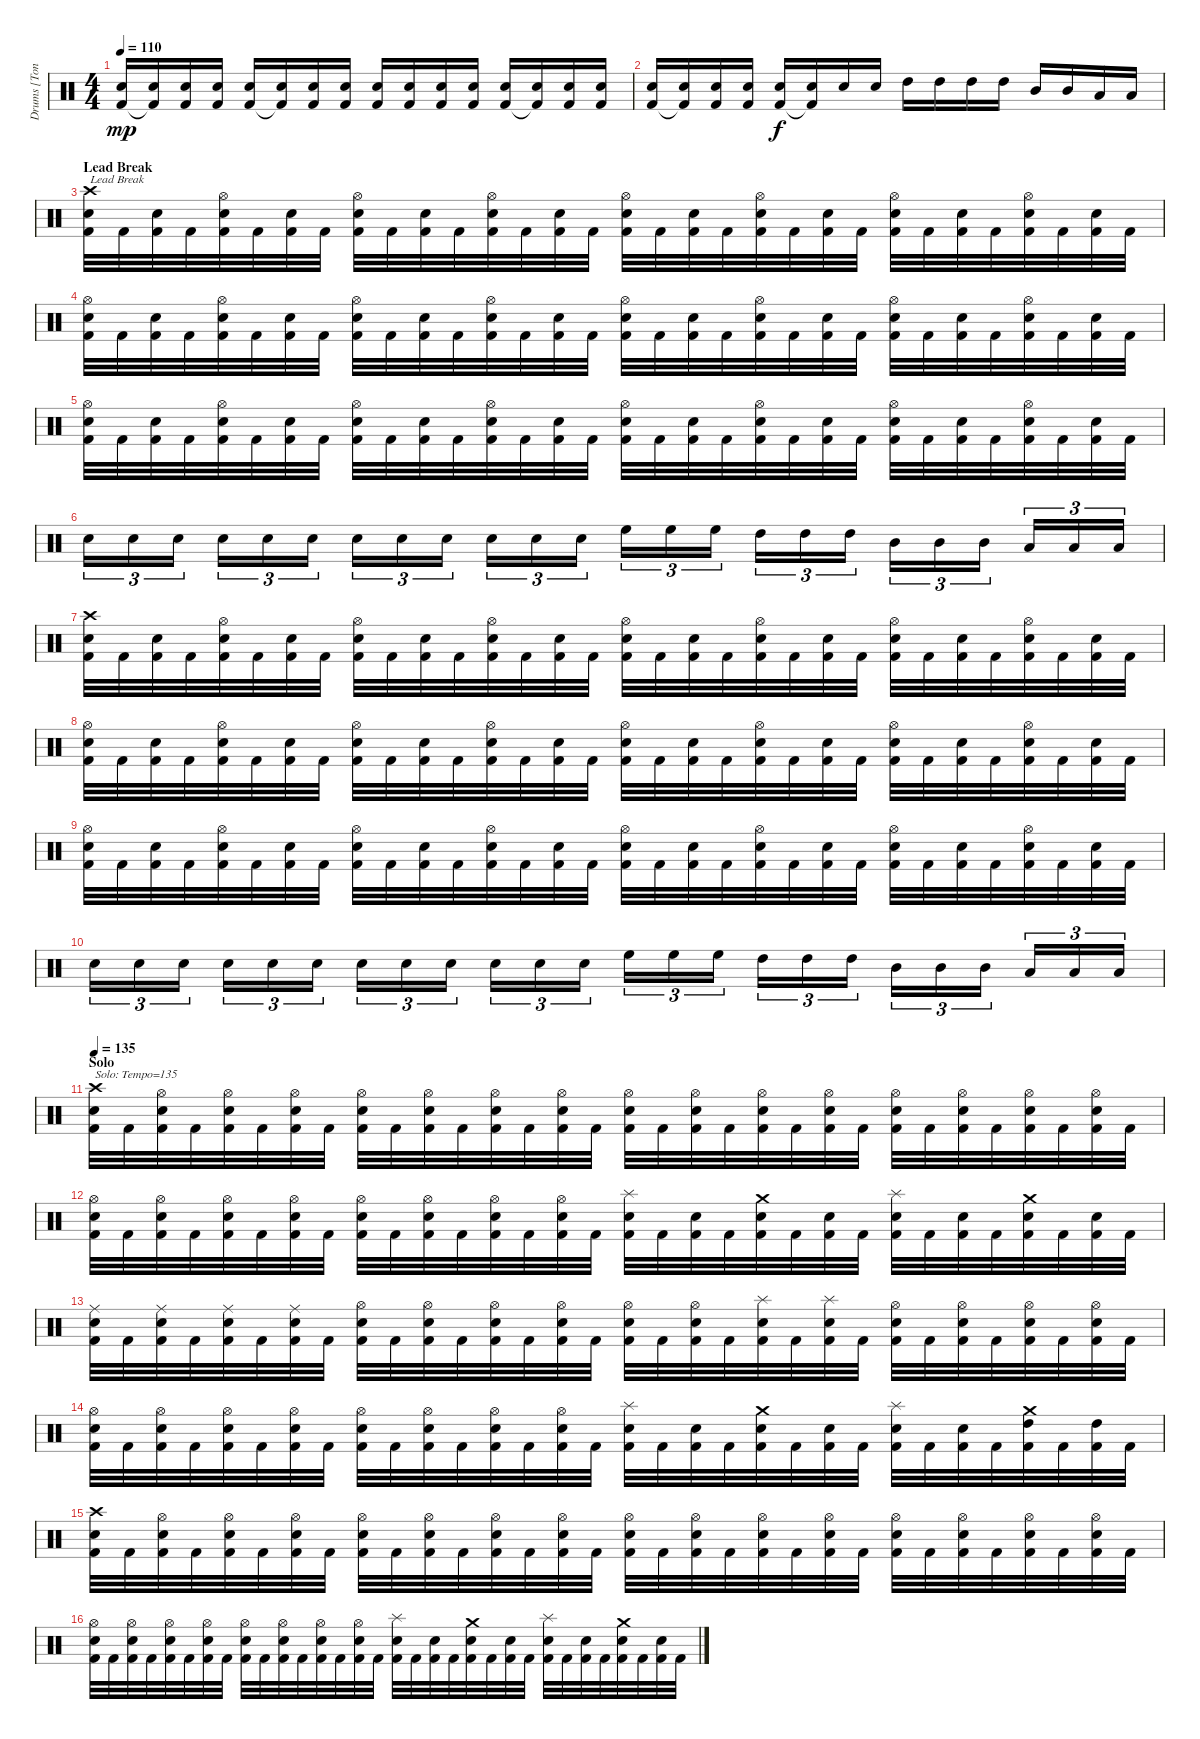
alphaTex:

\track ("Drums [Tony Laureano]" "Drums [Ton") {instrument percussion}
\staff {score}
\articulation defaults
\ts (4 4)
\tempo 110
\clef neutral
\ks c
("Electric Snare (hit)" "Kick (hit) 2").16{dy mp} ("Electric Snare (hit)" "Kick (hit) 2"{t}).16 ("Electric Snare (hit)" "Kick (hit) 2").16 ("Electric Snare (hit)" "Kick (hit) 2").16 ("Electric Snare (hit)" "Kick (hit) 2").16 ("Electric Snare (hit)" "Kick (hit) 2"{t}).16 ("Electric Snare (hit)" "Kick (hit) 2").16 ("Electric Snare (hit)" "Kick (hit) 2").16 ("Electric Snare (hit)" "Kick (hit) 2").16 ("Electric Snare (hit)" "Kick (hit) 2").16 ("Electric Snare (hit)" "Kick (hit) 2").16 ("Electric Snare (hit)" "Kick (hit) 2").16 ("Electric Snare (hit)" "Kick (hit) 2").16 ("Electric Snare (hit)" "Kick (hit) 2"{t}).16 ("Electric Snare (hit)" "Kick (hit) 2").16 ("Electric Snare (hit)" "Kick (hit) 2").16 |
("Electric Snare (hit)" "Kick (hit) 2").16 ("Electric Snare (hit)" "Kick (hit) 2"{t}).16 ("Electric Snare (hit)" "Kick (hit) 2").16 ("Electric Snare (hit)" "Kick (hit) 2").16 ("Electric Snare (hit)" "Kick (hit) 2").16{dy f} ("Electric Snare (hit)" "Kick (hit) 2"{t}).16 "Electric Snare (hit)".16 "Electric Snare (hit)".16 "High Tom (hit)".16 "High Tom (hit)".16 "High Tom (hit)".16 "High Tom (hit)".16 "Mid Tom (hit)".16 "Mid Tom (hit)".16 "Low Tom (hit)".16 "Low Tom (hit)".16 |
\section ("" "Lead Break")
("Crash high (hit)" "Electric Snare (hit)" "Kick (hit) 2").32{txt "Lead Break"} "Kick (hit) 2".32 ("Electric Snare (hit)" "Kick (hit) 2").32 "Kick (hit) 2".32 ("Hi-Hat (open)" "Electric Snare (hit)" "Kick (hit) 2").32 "Kick (hit) 2".32 ("Electric Snare (hit)" "Kick (hit) 2").32 "Kick (hit) 2".32 ("Hi-Hat (open)" "Electric Snare (hit)" "Kick (hit) 2").32 "Kick (hit) 2".32 ("Electric Snare (hit)" "Kick (hit) 2").32 "Kick (hit) 2".32 ("Hi-Hat (open)" "Electric Snare (hit)" "Kick (hit) 2").32 "Kick (hit) 2".32 ("Electric Snare (hit)" "Kick (hit) 2").32 "Kick (hit) 2".32 ("Hi-Hat (open)" "Electric Snare (hit)" "Kick (hit) 2").32 "Kick (hit) 2".32 ("Electric Snare (hit)" "Kick (hit) 2").32 "Kick (hit) 2".32 ("Hi-Hat (open)" "Electric Snare (hit)" "Kick (hit) 2").32 "Kick (hit) 2".32 ("Electric Snare (hit)" "Kick (hit) 2").32 "Kick (hit) 2".32 ("Hi-Hat (open)" "Electric Snare (hit)" "Kick (hit) 2").32 "Kick (hit) 2".32 ("Electric Snare (hit)" "Kick (hit) 2").32 "Kick (hit) 2".32 ("Hi-Hat (open)" "Electric Snare (hit)" "Kick (hit) 2").32 "Kick (hit) 2".32 ("Electric Snare (hit)" "Kick (hit) 2").32 "Kick (hit) 2".32 |
("Hi-Hat (open)" "Electric Snare (hit)" "Kick (hit) 2").32 "Kick (hit) 2".32 ("Electric Snare (hit)" "Kick (hit) 2").32 "Kick (hit) 2".32 ("Hi-Hat (open)" "Electric Snare (hit)" "Kick (hit) 2").32 "Kick (hit) 2".32 ("Electric Snare (hit)" "Kick (hit) 2").32 "Kick (hit) 2".32 ("Hi-Hat (open)" "Electric Snare (hit)" "Kick (hit) 2").32 "Kick (hit) 2".32 ("Electric Snare (hit)" "Kick (hit) 2").32 "Kick (hit) 2".32 ("Hi-Hat (open)" "Electric Snare (hit)" "Kick (hit) 2").32 "Kick (hit) 2".32 ("Electric Snare (hit)" "Kick (hit) 2").32 "Kick (hit) 2".32 ("Hi-Hat (open)" "Electric Snare (hit)" "Kick (hit) 2").32 "Kick (hit) 2".32 ("Electric Snare (hit)" "Kick (hit) 2").32 "Kick (hit) 2".32 ("Hi-Hat (open)" "Electric Snare (hit)" "Kick (hit) 2").32 "Kick (hit) 2".32 ("Electric Snare (hit)" "Kick (hit) 2").32 "Kick (hit) 2".32 ("Hi-Hat (open)" "Electric Snare (hit)" "Kick (hit) 2").32 "Kick (hit) 2".32 ("Electric Snare (hit)" "Kick (hit) 2").32 "Kick (hit) 2".32 ("Hi-Hat (open)" "Electric Snare (hit)" "Kick (hit) 2").32 "Kick (hit) 2".32 ("Electric Snare (hit)" "Kick (hit) 2").32 "Kick (hit) 2".32 |
("Hi-Hat (open)" "Electric Snare (hit)" "Kick (hit) 2").32 "Kick (hit) 2".32 ("Electric Snare (hit)" "Kick (hit) 2").32 "Kick (hit) 2".32 ("Hi-Hat (open)" "Electric Snare (hit)" "Kick (hit) 2").32 "Kick (hit) 2".32 ("Electric Snare (hit)" "Kick (hit) 2").32 "Kick (hit) 2".32 ("Hi-Hat (open)" "Electric Snare (hit)" "Kick (hit) 2").32 "Kick (hit) 2".32 ("Electric Snare (hit)" "Kick (hit) 2").32 "Kick (hit) 2".32 ("Hi-Hat (open)" "Electric Snare (hit)" "Kick (hit) 2").32 "Kick (hit) 2".32 ("Electric Snare (hit)" "Kick (hit) 2").32 "Kick (hit) 2".32 ("Hi-Hat (open)" "Electric Snare (hit)" "Kick (hit) 2").32 "Kick (hit) 2".32 ("Electric Snare (hit)" "Kick (hit) 2").32 "Kick (hit) 2".32 ("Hi-Hat (open)" "Electric Snare (hit)" "Kick (hit) 2").32 "Kick (hit) 2".32 ("Electric Snare (hit)" "Kick (hit) 2").32 "Kick (hit) 2".32 ("Hi-Hat (open)" "Electric Snare (hit)" "Kick (hit) 2").32 "Kick (hit) 2".32 ("Electric Snare (hit)" "Kick (hit) 2").32 "Kick (hit) 2".32 ("Hi-Hat (open)" "Electric Snare (hit)" "Kick (hit) 2").32 "Kick (hit) 2".32 ("Electric Snare (hit)" "Kick (hit) 2").32 "Kick (hit) 2".32 |
"Electric Snare (hit)".16{tu (3 2)} "Electric Snare (hit)".16{tu (3 2)} "Electric Snare (hit)".16{tu (3 2)} "Electric Snare (hit)".16{tu (3 2)} "Electric Snare (hit)".16{tu (3 2)} "Electric Snare (hit)".16{tu (3 2)} "Electric Snare (hit)".16{tu (3 2)} "Electric Snare (hit)".16{tu (3 2)} "Electric Snare (hit)".16{tu (3 2)} "Electric Snare (hit)".16{tu (3 2)} "Electric Snare (hit)".16{tu (3 2)} "Electric Snare (hit)".16{tu (3 2)} "High Floor Tom (hit)".16{tu (3 2)} "High Floor Tom (hit)".16{tu (3 2)} "High Floor Tom (hit)".16{tu (3 2)} "High Tom (hit)".16{tu (3 2)} "High Tom (hit)".16{tu (3 2)} "High Tom (hit)".16{tu (3 2)} "Mid Tom (hit)".16{tu (3 2)} "Mid Tom (hit)".16{tu (3 2)} "Mid Tom (hit)".16{tu (3 2)} "Low Tom (hit)".16{tu (3 2)} "Low Tom (hit)".16{tu (3 2)} "Low Tom (hit)".16{tu (3 2)} |
("Crash high (hit)" "Electric Snare (hit)" "Kick (hit) 2").32 "Kick (hit) 2".32 ("Electric Snare (hit)" "Kick (hit) 2").32 "Kick (hit) 2".32 ("Hi-Hat (open)" "Electric Snare (hit)" "Kick (hit) 2").32 "Kick (hit) 2".32 ("Electric Snare (hit)" "Kick (hit) 2").32 "Kick (hit) 2".32 ("Hi-Hat (open)" "Electric Snare (hit)" "Kick (hit) 2").32 "Kick (hit) 2".32 ("Electric Snare (hit)" "Kick (hit) 2").32 "Kick (hit) 2".32 ("Hi-Hat (open)" "Electric Snare (hit)" "Kick (hit) 2").32 "Kick (hit) 2".32 ("Electric Snare (hit)" "Kick (hit) 2").32 "Kick (hit) 2".32 ("Hi-Hat (open)" "Electric Snare (hit)" "Kick (hit) 2").32 "Kick (hit) 2".32 ("Electric Snare (hit)" "Kick (hit) 2").32 "Kick (hit) 2".32 ("Hi-Hat (open)" "Electric Snare (hit)" "Kick (hit) 2").32 "Kick (hit) 2".32 ("Electric Snare (hit)" "Kick (hit) 2").32 "Kick (hit) 2".32 ("Hi-Hat (open)" "Electric Snare (hit)" "Kick (hit) 2").32 "Kick (hit) 2".32 ("Electric Snare (hit)" "Kick (hit) 2").32 "Kick (hit) 2".32 ("Hi-Hat (open)" "Electric Snare (hit)" "Kick (hit) 2").32 "Kick (hit) 2".32 ("Electric Snare (hit)" "Kick (hit) 2").32 "Kick (hit) 2".32 |
("Hi-Hat (open)" "Electric Snare (hit)" "Kick (hit) 2").32 "Kick (hit) 2".32 ("Electric Snare (hit)" "Kick (hit) 2").32 "Kick (hit) 2".32 ("Hi-Hat (open)" "Electric Snare (hit)" "Kick (hit) 2").32 "Kick (hit) 2".32 ("Electric Snare (hit)" "Kick (hit) 2").32 "Kick (hit) 2".32 ("Hi-Hat (open)" "Electric Snare (hit)" "Kick (hit) 2").32 "Kick (hit) 2".32 ("Electric Snare (hit)" "Kick (hit) 2").32 "Kick (hit) 2".32 ("Hi-Hat (open)" "Electric Snare (hit)" "Kick (hit) 2").32 "Kick (hit) 2".32 ("Electric Snare (hit)" "Kick (hit) 2").32 "Kick (hit) 2".32 ("Hi-Hat (open)" "Electric Snare (hit)" "Kick (hit) 2").32 "Kick (hit) 2".32 ("Electric Snare (hit)" "Kick (hit) 2").32 "Kick (hit) 2".32 ("Hi-Hat (open)" "Electric Snare (hit)" "Kick (hit) 2").32 "Kick (hit) 2".32 ("Electric Snare (hit)" "Kick (hit) 2").32 "Kick (hit) 2".32 ("Hi-Hat (open)" "Electric Snare (hit)" "Kick (hit) 2").32 "Kick (hit) 2".32 ("Electric Snare (hit)" "Kick (hit) 2").32 "Kick (hit) 2".32 ("Hi-Hat (open)" "Electric Snare (hit)" "Kick (hit) 2").32 "Kick (hit) 2".32 ("Electric Snare (hit)" "Kick (hit) 2").32 "Kick (hit) 2".32 |
("Hi-Hat (open)" "Electric Snare (hit)" "Kick (hit) 2").32 "Kick (hit) 2".32 ("Electric Snare (hit)" "Kick (hit) 2").32 "Kick (hit) 2".32 ("Hi-Hat (open)" "Electric Snare (hit)" "Kick (hit) 2").32 "Kick (hit) 2".32 ("Electric Snare (hit)" "Kick (hit) 2").32 "Kick (hit) 2".32 ("Hi-Hat (open)" "Electric Snare (hit)" "Kick (hit) 2").32 "Kick (hit) 2".32 ("Electric Snare (hit)" "Kick (hit) 2").32 "Kick (hit) 2".32 ("Hi-Hat (open)" "Electric Snare (hit)" "Kick (hit) 2").32 "Kick (hit) 2".32 ("Electric Snare (hit)" "Kick (hit) 2").32 "Kick (hit) 2".32 ("Hi-Hat (open)" "Electric Snare (hit)" "Kick (hit) 2").32 "Kick (hit) 2".32 ("Electric Snare (hit)" "Kick (hit) 2").32 "Kick (hit) 2".32 ("Hi-Hat (open)" "Electric Snare (hit)" "Kick (hit) 2").32 "Kick (hit) 2".32 ("Electric Snare (hit)" "Kick (hit) 2").32 "Kick (hit) 2".32 ("Hi-Hat (open)" "Electric Snare (hit)" "Kick (hit) 2").32 "Kick (hit) 2".32 ("Electric Snare (hit)" "Kick (hit) 2").32 "Kick (hit) 2".32 ("Hi-Hat (open)" "Electric Snare (hit)" "Kick (hit) 2").32 "Kick (hit) 2".32 ("Electric Snare (hit)" "Kick (hit) 2").32 "Kick (hit) 2".32 |
"Electric Snare (hit)".16{tu (3 2)} "Electric Snare (hit)".16{tu (3 2)} "Electric Snare (hit)".16{tu (3 2)} "Electric Snare (hit)".16{tu (3 2)} "Electric Snare (hit)".16{tu (3 2)} "Electric Snare (hit)".16{tu (3 2)} "Electric Snare (hit)".16{tu (3 2)} "Electric Snare (hit)".16{tu (3 2)} "Electric Snare (hit)".16{tu (3 2)} "Electric Snare (hit)".16{tu (3 2)} "Electric Snare (hit)".16{tu (3 2)} "Electric Snare (hit)".16{tu (3 2)} "High Floor Tom (hit)".16{tu (3 2)} "High Floor Tom (hit)".16{tu (3 2)} "High Floor Tom (hit)".16{tu (3 2)} "High Tom (hit)".16{tu (3 2)} "High Tom (hit)".16{tu (3 2)} "High Tom (hit)".16{tu (3 2)} "Mid Tom (hit)".16{tu (3 2)} "Mid Tom (hit)".16{tu (3 2)} "Mid Tom (hit)".16{tu (3 2)} "Low Tom (hit)".16{tu (3 2)} "Low Tom (hit)".16{tu (3 2)} "Low Tom (hit)".16{tu (3 2)} |
\section ("" "Solo")
\tempo 135
("Crash high (hit)" "Electric Snare (hit)" "Kick (hit) 2").32{txt "Solo: Tempo=135"} "Kick (hit) 2".32 ("Hi-Hat (open)" "Electric Snare (hit)" "Kick (hit) 2").32 "Kick (hit) 2".32 ("Hi-Hat (open)" "Electric Snare (hit)" "Kick (hit) 2").32 "Kick (hit) 2".32 ("Hi-Hat (open)" "Electric Snare (hit)" "Kick (hit) 2").32 "Kick (hit) 2".32 ("Hi-Hat (open)" "Electric Snare (hit)" "Kick (hit) 2").32 "Kick (hit) 2".32 ("Hi-Hat (open)" "Electric Snare (hit)" "Kick (hit) 2").32 "Kick (hit) 2".32 ("Hi-Hat (open)" "Electric Snare (hit)" "Kick (hit) 2").32 "Kick (hit) 2".32 ("Hi-Hat (open)" "Electric Snare (hit)" "Kick (hit) 2").32 "Kick (hit) 2".32 ("Hi-Hat (open)" "Electric Snare (hit)" "Kick (hit) 2").32 "Kick (hit) 2".32 ("Hi-Hat (open)" "Electric Snare (hit)" "Kick (hit) 2").32 "Kick (hit) 2".32 ("Hi-Hat (open)" "Electric Snare (hit)" "Kick (hit) 2").32 "Kick (hit) 2".32 ("Hi-Hat (open)" "Electric Snare (hit)" "Kick (hit) 2").32 "Kick (hit) 2".32 ("Hi-Hat (open)" "Electric Snare (hit)" "Kick (hit) 2").32 "Kick (hit) 2".32 ("Hi-Hat (open)" "Electric Snare (hit)" "Kick (hit) 2").32 "Kick (hit) 2".32 ("Hi-Hat (open)" "Electric Snare (hit)" "Kick (hit) 2").32 "Kick (hit) 2".32 ("Hi-Hat (open)" "Electric Snare (hit)" "Kick (hit) 2").32 "Kick (hit) 2".32 |
("Hi-Hat (open)" "Electric Snare (hit)" "Kick (hit) 2").32 "Kick (hit) 2".32 ("Hi-Hat (open)" "Electric Snare (hit)" "Kick (hit) 2").32 "Kick (hit) 2".32 ("Hi-Hat (open)" "Electric Snare (hit)" "Kick (hit) 2").32 "Kick (hit) 2".32 ("Hi-Hat (open)" "Electric Snare (hit)" "Kick (hit) 2").32 "Kick (hit) 2".32 ("Hi-Hat (open)" "Electric Snare (hit)" "Kick (hit) 2").32 "Kick (hit) 2".32 ("Hi-Hat (open)" "Electric Snare (hit)" "Kick (hit) 2").32 "Kick (hit) 2".32 ("Hi-Hat (open)" "Electric Snare (hit)" "Kick (hit) 2").32 "Kick (hit) 2".32 ("Hi-Hat (open)" "Electric Snare (hit)" "Kick (hit) 2").32 "Kick (hit) 2".32 ("Splash (hit)" "Electric Snare (hit)" "Kick (hit) 2").32 "Kick (hit) 2".32 ("Electric Snare (hit)" "Kick (hit) 2").32 "Kick (hit) 2".32 ("Crash medium (hit)" "Electric Snare (hit)" "Kick (hit) 2").32 "Kick (hit) 2".32 ("Electric Snare (hit)" "Kick (hit) 2").32 "Kick (hit) 2".32 ("Splash (hit)" "Electric Snare (hit)" "Kick (hit) 2").32 "Kick (hit) 2".32 ("Electric Snare (hit)" "Kick (hit) 2").32 "Kick (hit) 2".32 ("Crash medium (hit)" "Electric Snare (hit)" "Kick (hit) 2").32 "Kick (hit) 2".32 ("Electric Snare (hit)" "Kick (hit) 2").32 "Kick (hit) 2".32 |
("Ride (middle)" "Electric Snare (hit)" "Kick (hit) 2").32 "Kick (hit) 2".32 ("Ride (middle)" "Electric Snare (hit)" "Kick (hit) 2").32 "Kick (hit) 2".32 ("Ride (middle)" "Electric Snare (hit)" "Kick (hit) 2").32 "Kick (hit) 2".32 ("Ride (middle)" "Electric Snare (hit)" "Kick (hit) 2").32 "Kick (hit) 2".32 ("Hi-Hat (open)" "Electric Snare (hit)" "Kick (hit) 2").32 "Kick (hit) 2".32 ("Hi-Hat (open)" "Electric Snare (hit)" "Kick (hit) 2").32 "Kick (hit) 2".32 ("Hi-Hat (open)" "Electric Snare (hit)" "Kick (hit) 2").32 "Kick (hit) 2".32 ("Hi-Hat (open)" "Electric Snare (hit)" "Kick (hit) 2").32 "Kick (hit) 2".32 ("Hi-Hat (open)" "Electric Snare (hit)" "Kick (hit) 2").32 "Kick (hit) 2".32 ("Hi-Hat (open)" "Electric Snare (hit)" "Kick (hit) 2").32 "Kick (hit) 2".32 ("Splash (hit)" "Electric Snare (hit)" "Kick (hit) 2").32 "Kick (hit) 2".32 ("Splash (hit)" "Electric Snare (hit)" "Kick (hit) 2").32 "Kick (hit) 2".32 ("Hi-Hat (open)" "Electric Snare (hit)" "Kick (hit) 2").32 "Kick (hit) 2".32 ("Hi-Hat (open)" "Electric Snare (hit)" "Kick (hit) 2").32 "Kick (hit) 2".32 ("Hi-Hat (open)" "Electric Snare (hit)" "Kick (hit) 2").32 "Kick (hit) 2".32 ("Hi-Hat (open)" "Electric Snare (hit)" "Kick (hit) 2").32 "Kick (hit) 2".32 |
("Hi-Hat (open)" "Electric Snare (hit)" "Kick (hit) 2").32 "Kick (hit) 2".32 ("Hi-Hat (open)" "Electric Snare (hit)" "Kick (hit) 2").32 "Kick (hit) 2".32 ("Hi-Hat (open)" "Electric Snare (hit)" "Kick (hit) 2").32 "Kick (hit) 2".32 ("Hi-Hat (open)" "Electric Snare (hit)" "Kick (hit) 2").32 "Kick (hit) 2".32 ("Hi-Hat (open)" "Electric Snare (hit)" "Kick (hit) 2").32 "Kick (hit) 2".32 ("Hi-Hat (open)" "Electric Snare (hit)" "Kick (hit) 2").32 "Kick (hit) 2".32 ("Hi-Hat (open)" "Electric Snare (hit)" "Kick (hit) 2").32 "Kick (hit) 2".32 ("Hi-Hat (open)" "Electric Snare (hit)" "Kick (hit) 2").32 "Kick (hit) 2".32 ("Splash (hit)" "Electric Snare (hit)" "Kick (hit) 2").32 "Kick (hit) 2".32 ("Electric Snare (hit)" "Kick (hit) 2").32 "Kick (hit) 2".32 ("Crash medium (hit)" "Electric Snare (hit)" "Kick (hit) 2").32 "Kick (hit) 2".32 ("Electric Snare (hit)" "Kick (hit) 2").32 "Kick (hit) 2".32 ("Splash (hit)" "Electric Snare (hit)" "Kick (hit) 2").32 "Kick (hit) 2".32 ("Electric Snare (hit)" "Kick (hit) 2").32 "Kick (hit) 2".32 ("Crash medium (hit)" "High Tom (hit)" "Kick (hit) 2").32 "Kick (hit) 2".32 ("High Tom (hit)" "Kick (hit) 2").32 "Kick (hit) 2".32 |
("Crash high (hit)" "Electric Snare (hit)" "Kick (hit) 2").32 "Kick (hit) 2".32 ("Hi-Hat (open)" "Electric Snare (hit)" "Kick (hit) 2").32 "Kick (hit) 2".32 ("Hi-Hat (open)" "Electric Snare (hit)" "Kick (hit) 2").32 "Kick (hit) 2".32 ("Hi-Hat (open)" "Electric Snare (hit)" "Kick (hit) 2").32 "Kick (hit) 2".32 ("Hi-Hat (open)" "Electric Snare (hit)" "Kick (hit) 2").32 "Kick (hit) 2".32 ("Hi-Hat (open)" "Electric Snare (hit)" "Kick (hit) 2").32 "Kick (hit) 2".32 ("Hi-Hat (open)" "Electric Snare (hit)" "Kick (hit) 2").32 "Kick (hit) 2".32 ("Hi-Hat (open)" "Electric Snare (hit)" "Kick (hit) 2").32 "Kick (hit) 2".32 ("Hi-Hat (open)" "Electric Snare (hit)" "Kick (hit) 2").32 "Kick (hit) 2".32 ("Hi-Hat (open)" "Electric Snare (hit)" "Kick (hit) 2").32 "Kick (hit) 2".32 ("Hi-Hat (open)" "Electric Snare (hit)" "Kick (hit) 2").32 "Kick (hit) 2".32 ("Hi-Hat (open)" "Electric Snare (hit)" "Kick (hit) 2").32 "Kick (hit) 2".32 ("Hi-Hat (open)" "Electric Snare (hit)" "Kick (hit) 2").32 "Kick (hit) 2".32 ("Hi-Hat (open)" "Electric Snare (hit)" "Kick (hit) 2").32 "Kick (hit) 2".32 ("Hi-Hat (open)" "Electric Snare (hit)" "Kick (hit) 2").32 "Kick (hit) 2".32 ("Hi-Hat (open)" "Electric Snare (hit)" "Kick (hit) 2").32 "Kick (hit) 2".32 |
("Hi-Hat (open)" "Electric Snare (hit)" "Kick (hit) 2").32 "Kick (hit) 2".32 ("Hi-Hat (open)" "Electric Snare (hit)" "Kick (hit) 2").32 "Kick (hit) 2".32 ("Hi-Hat (open)" "Electric Snare (hit)" "Kick (hit) 2").32 "Kick (hit) 2".32 ("Hi-Hat (open)" "Electric Snare (hit)" "Kick (hit) 2").32 "Kick (hit) 2".32 ("Hi-Hat (open)" "Electric Snare (hit)" "Kick (hit) 2").32 "Kick (hit) 2".32 ("Hi-Hat (open)" "Electric Snare (hit)" "Kick (hit) 2").32 "Kick (hit) 2".32 ("Hi-Hat (open)" "Electric Snare (hit)" "Kick (hit) 2").32 "Kick (hit) 2".32 ("Hi-Hat (open)" "Electric Snare (hit)" "Kick (hit) 2").32 "Kick (hit) 2".32 ("Splash (hit)" "Electric Snare (hit)" "Kick (hit) 2").32 "Kick (hit) 2".32 ("Electric Snare (hit)" "Kick (hit) 2").32 "Kick (hit) 2".32 ("Crash medium (hit)" "Electric Snare (hit)" "Kick (hit) 2").32 "Kick (hit) 2".32 ("Electric Snare (hit)" "Kick (hit) 2").32 "Kick (hit) 2".32 ("Splash (hit)" "Electric Snare (hit)" "Kick (hit) 2").32 "Kick (hit) 2".32 ("Electric Snare (hit)" "Kick (hit) 2").32 "Kick (hit) 2".32 ("Crash medium (hit)" "Electric Snare (hit)" "Kick (hit) 2").32 "Kick (hit) 2".32 ("Electric Snare (hit)" "Kick (hit) 2").32 "Kick (hit) 2".32
